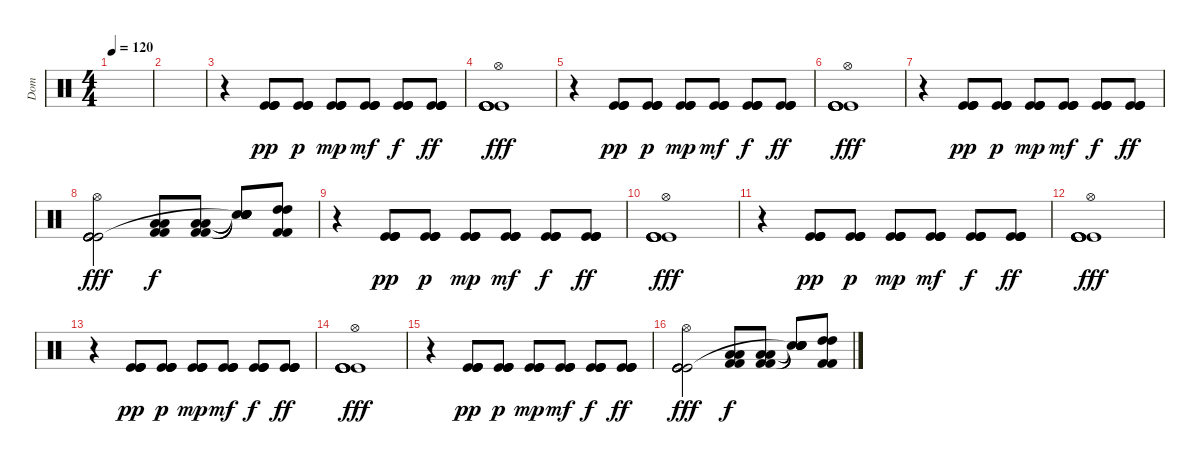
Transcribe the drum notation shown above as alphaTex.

\track ("Dom" "Dom") {instrument percussion}
\staff {score}
\articulation defaults
\ts (4 4)
\tempo 120
\clef neutral
\ks c
|
|
r.4 ("Kick (hit)" "Kick (hit)" "Kick (hit)" "Kick (hit)").8{dy pp} ("Kick (hit)" "Kick (hit)" "Kick (hit)" "Kick (hit)").8{dy p} ("Kick (hit)" "Kick (hit)" "Kick (hit)" "Kick (hit)").8{dy mp} ("Kick (hit)" "Kick (hit)" "Kick (hit)" "Kick (hit)").8{dy mf} ("Kick (hit)" "Kick (hit)" "Kick (hit)" "Kick (hit)").8{dy f} ("Kick (hit)" "Kick (hit)" "Kick (hit)" "Kick (hit)").8{dy ff} |
("Hi-Hat (open)" "Kick (hit)" "Kick (hit)" "Kick (hit)" "Kick (hit)" "Kick (hit)").1{dy fff} |
r.4 ("Kick (hit)" "Kick (hit)" "Kick (hit)" "Kick (hit)").8{dy pp} ("Kick (hit)" "Kick (hit)" "Kick (hit)" "Kick (hit)").8{dy p} ("Kick (hit)" "Kick (hit)" "Kick (hit)" "Kick (hit)").8{dy mp} ("Kick (hit)" "Kick (hit)" "Kick (hit)" "Kick (hit)").8{dy mf} ("Kick (hit)" "Kick (hit)" "Kick (hit)" "Kick (hit)").8{dy f} ("Kick (hit)" "Kick (hit)" "Kick (hit)" "Kick (hit)").8{dy ff} |
("Hi-Hat (open)" "Kick (hit)" "Kick (hit)" "Kick (hit)" "Kick (hit)" "Kick (hit)").1{dy fff} |
r.4 ("Kick (hit)" "Kick (hit)" "Kick (hit)" "Kick (hit)").8{dy pp} ("Kick (hit)" "Kick (hit)" "Kick (hit)" "Kick (hit)").8{dy p} ("Kick (hit)" "Kick (hit)" "Kick (hit)" "Kick (hit)").8{dy mp} ("Kick (hit)" "Kick (hit)" "Kick (hit)" "Kick (hit)").8{dy mf} ("Kick (hit)" "Kick (hit)" "Kick (hit)" "Kick (hit)").8{dy f} ("Kick (hit)" "Kick (hit)" "Kick (hit)" "Kick (hit)").8{dy ff} |
("Hi-Hat (open)" "Kick (hit)" "Kick (hit)" "Kick (hit)" "Kick (hit)" "Kick (hit)").2{dy fff} ("Low Floor Tom (hit)" "Low Floor Tom (hit)" "Kick (hit) 2" "Kick (hit) 2").8{dy f} ("Low Floor Tom (hit)" "Low Floor Tom (hit)" "Kick (hit) 2" "Kick (hit) 2").8 ("Snare (hit)"{t} "Snare (hit)"{t} "Snare (hit)"{t} "Snare (hit)"{t} "Snare (hit)"{t}).8 ("High Tom (hit)" "High Tom (hit)" "Kick (hit) 2" "Kick (hit) 2").8 |
r.4 ("Kick (hit)" "Kick (hit)" "Kick (hit)" "Kick (hit)").8{dy pp} ("Kick (hit)" "Kick (hit)" "Kick (hit)" "Kick (hit)").8{dy p} ("Kick (hit)" "Kick (hit)" "Kick (hit)" "Kick (hit)").8{dy mp} ("Kick (hit)" "Kick (hit)" "Kick (hit)" "Kick (hit)").8{dy mf} ("Kick (hit)" "Kick (hit)" "Kick (hit)" "Kick (hit)").8{dy f} ("Kick (hit)" "Kick (hit)" "Kick (hit)" "Kick (hit)").8{dy ff} |
("Hi-Hat (open)" "Kick (hit)" "Kick (hit)" "Kick (hit)" "Kick (hit)" "Kick (hit)").1{dy fff} |
r.4 ("Kick (hit)" "Kick (hit)" "Kick (hit)" "Kick (hit)").8{dy pp} ("Kick (hit)" "Kick (hit)" "Kick (hit)" "Kick (hit)").8{dy p} ("Kick (hit)" "Kick (hit)" "Kick (hit)" "Kick (hit)").8{dy mp} ("Kick (hit)" "Kick (hit)" "Kick (hit)" "Kick (hit)").8{dy mf} ("Kick (hit)" "Kick (hit)" "Kick (hit)" "Kick (hit)").8{dy f} ("Kick (hit)" "Kick (hit)" "Kick (hit)" "Kick (hit)").8{dy ff} |
("Hi-Hat (open)" "Kick (hit)" "Kick (hit)" "Kick (hit)" "Kick (hit)" "Kick (hit)").1{dy fff} |
r.4 ("Kick (hit)" "Kick (hit)" "Kick (hit)" "Kick (hit)").8{dy pp} ("Kick (hit)" "Kick (hit)" "Kick (hit)" "Kick (hit)").8{dy p} ("Kick (hit)" "Kick (hit)" "Kick (hit)" "Kick (hit)").8{dy mp} ("Kick (hit)" "Kick (hit)" "Kick (hit)" "Kick (hit)").8{dy mf} ("Kick (hit)" "Kick (hit)" "Kick (hit)" "Kick (hit)").8{dy f} ("Kick (hit)" "Kick (hit)" "Kick (hit)" "Kick (hit)").8{dy ff} |
("Hi-Hat (open)" "Kick (hit)" "Kick (hit)" "Kick (hit)" "Kick (hit)" "Kick (hit)").1{dy fff} |
r.4 ("Kick (hit)" "Kick (hit)" "Kick (hit)" "Kick (hit)").8{dy pp} ("Kick (hit)" "Kick (hit)" "Kick (hit)" "Kick (hit)").8{dy p} ("Kick (hit)" "Kick (hit)" "Kick (hit)" "Kick (hit)").8{dy mp} ("Kick (hit)" "Kick (hit)" "Kick (hit)" "Kick (hit)").8{dy mf} ("Kick (hit)" "Kick (hit)" "Kick (hit)" "Kick (hit)").8{dy f} ("Kick (hit)" "Kick (hit)" "Kick (hit)" "Kick (hit)").8{dy ff} |
("Hi-Hat (open)" "Kick (hit)" "Kick (hit)" "Kick (hit)" "Kick (hit)" "Kick (hit)").2{dy fff} ("Low Floor Tom (hit)" "Low Floor Tom (hit)" "Kick (hit) 2" "Kick (hit) 2").8{dy f} ("Low Floor Tom (hit)" "Low Floor Tom (hit)" "Kick (hit) 2" "Kick (hit) 2").8 ("Snare (hit)"{t} "Snare (hit)"{t} "Snare (hit)"{t} "Snare (hit)"{t} "Snare (hit)"{t}).8 ("High Tom (hit)" "High Tom (hit)" "Kick (hit) 2" "Kick (hit) 2").8
